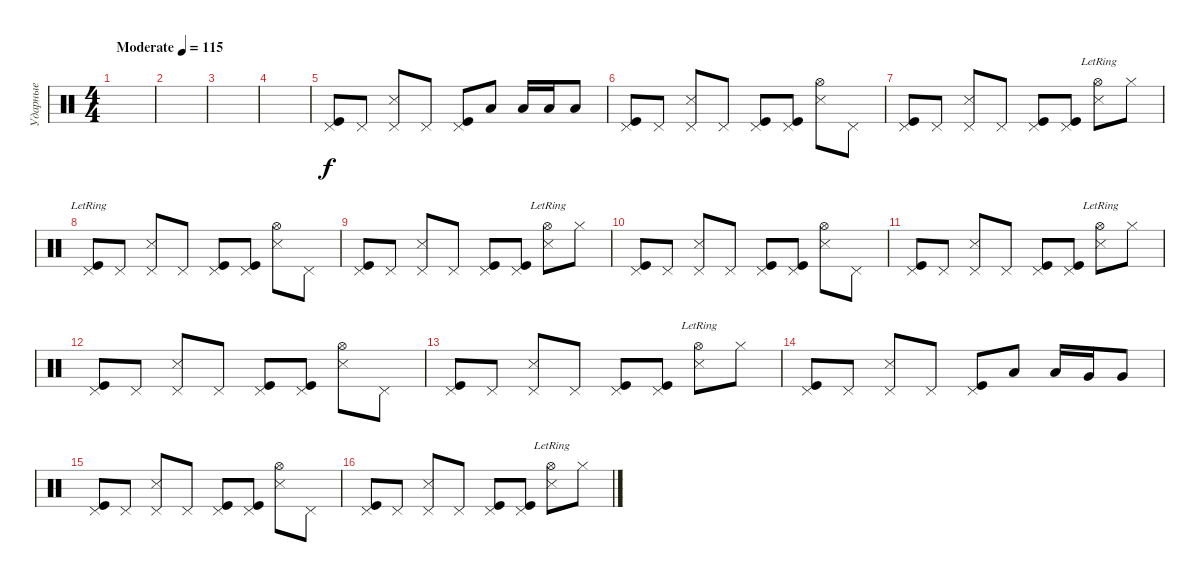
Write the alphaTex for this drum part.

\track ("Ударные" "Ударные") {instrument percussion}
\staff
\articulation defaults
\ts (4 4)
\tempo (115 "Moderate")
\clef neutral
\ks c
|
|
|
|
("Pedal Hi-Hat (hit)" "Kick (hit)").8 "Pedal Hi-Hat (hit)".8 ("Pedal Hi-Hat (hit)" "Snare (side stick) 3").8 "Pedal Hi-Hat (hit)".8 ("Pedal Hi-Hat (hit)" "Kick (hit)").8 "Low Tom (hit)".8 "Low Tom (hit)".16 "Low Tom (hit)".16 "Low Tom (hit)".8 |
("Pedal Hi-Hat (hit)" "Kick (hit)").8 "Pedal Hi-Hat (hit)".8 ("Pedal Hi-Hat (hit)" "Snare (side stick) 3").8 "Pedal Hi-Hat (hit)".8 ("Pedal Hi-Hat (hit)" "Kick (hit)").8 ("Pedal Hi-Hat (hit)" "Kick (hit)").8 ("Hi-Hat (open)" "Snare (side stick) 3").8 "Pedal Hi-Hat (hit)".8 |
("Pedal Hi-Hat (hit)" "Kick (hit)").8 "Pedal Hi-Hat (hit)".8 ("Pedal Hi-Hat (hit)" "Snare (side stick) 3").8 "Pedal Hi-Hat (hit)".8 ("Pedal Hi-Hat (hit)" "Kick (hit)").8 ("Pedal Hi-Hat (hit)" "Kick (hit)").8 ("Hi-Hat (open)"{lr} "Snare (side stick) 3").8 "Hi-Hat (closed)".8 |
("Pedal Hi-Hat (hit)"{lr} "Kick (hit)").8 "Pedal Hi-Hat (hit)".8 ("Pedal Hi-Hat (hit)" "Snare (side stick) 3").8 "Pedal Hi-Hat (hit)".8 ("Pedal Hi-Hat (hit)" "Kick (hit)").8 ("Pedal Hi-Hat (hit)" "Kick (hit)").8 ("Hi-Hat (open)" "Snare (side stick) 3").8 "Pedal Hi-Hat (hit)".8 |
("Pedal Hi-Hat (hit)" "Kick (hit)").8 "Pedal Hi-Hat (hit)".8 ("Pedal Hi-Hat (hit)" "Snare (side stick) 3").8 "Pedal Hi-Hat (hit)".8 ("Pedal Hi-Hat (hit)" "Kick (hit)").8 ("Pedal Hi-Hat (hit)" "Kick (hit)").8 ("Hi-Hat (open)"{lr} "Snare (side stick) 3").8 "Hi-Hat (closed)".8 |
("Pedal Hi-Hat (hit)" "Kick (hit)").8 "Pedal Hi-Hat (hit)".8 ("Pedal Hi-Hat (hit)" "Snare (side stick) 3").8 "Pedal Hi-Hat (hit)".8 ("Pedal Hi-Hat (hit)" "Kick (hit)").8 ("Pedal Hi-Hat (hit)" "Kick (hit)").8 ("Hi-Hat (open)" "Snare (side stick) 3").8 "Pedal Hi-Hat (hit)".8 |
("Pedal Hi-Hat (hit)" "Kick (hit)").8 "Pedal Hi-Hat (hit)".8 ("Pedal Hi-Hat (hit)" "Snare (side stick) 3").8 "Pedal Hi-Hat (hit)".8 ("Pedal Hi-Hat (hit)" "Kick (hit)").8 ("Pedal Hi-Hat (hit)" "Kick (hit)").8 ("Hi-Hat (open)"{lr} "Snare (side stick) 3").8 "Hi-Hat (closed)".8 |
("Pedal Hi-Hat (hit)" "Kick (hit)").8 "Pedal Hi-Hat (hit)".8 ("Pedal Hi-Hat (hit)" "Snare (side stick) 3").8 "Pedal Hi-Hat (hit)".8 ("Pedal Hi-Hat (hit)" "Kick (hit)").8 ("Pedal Hi-Hat (hit)" "Kick (hit)").8 ("Hi-Hat (open)" "Snare (side stick) 3").8 "Pedal Hi-Hat (hit)".8 |
("Pedal Hi-Hat (hit)" "Kick (hit)").8 "Pedal Hi-Hat (hit)".8 ("Pedal Hi-Hat (hit)" "Snare (side stick) 3").8 "Pedal Hi-Hat (hit)".8 ("Pedal Hi-Hat (hit)" "Kick (hit)").8 ("Pedal Hi-Hat (hit)" "Kick (hit)").8 ("Hi-Hat (open)"{lr} "Snare (side stick) 3").8 "Hi-Hat (closed)".8 |
("Pedal Hi-Hat (hit)" "Kick (hit)").8 "Pedal Hi-Hat (hit)".8 ("Pedal Hi-Hat (hit)" "Snare (side stick) 3").8 "Pedal Hi-Hat (hit)".8 ("Pedal Hi-Hat (hit)" "Kick (hit)").8 "Low Tom (hit)".8 "Low Tom (hit)".16 "Very Low Tom (hit)".16 "Very Low Tom (hit)".8 |
("Pedal Hi-Hat (hit)" "Kick (hit)").8 "Pedal Hi-Hat (hit)".8 ("Pedal Hi-Hat (hit)" "Snare (side stick) 3").8 "Pedal Hi-Hat (hit)".8 ("Pedal Hi-Hat (hit)" "Kick (hit)").8 ("Pedal Hi-Hat (hit)" "Kick (hit)").8 ("Hi-Hat (open)" "Snare (side stick) 3").8 "Pedal Hi-Hat (hit)".8 |
("Pedal Hi-Hat (hit)" "Kick (hit)").8 "Pedal Hi-Hat (hit)".8 ("Pedal Hi-Hat (hit)" "Snare (side stick) 3").8 "Pedal Hi-Hat (hit)".8 ("Pedal Hi-Hat (hit)" "Kick (hit)").8 ("Pedal Hi-Hat (hit)" "Kick (hit)").8 ("Hi-Hat (open)"{lr} "Snare (side stick) 3").8 "Hi-Hat (closed)".8
